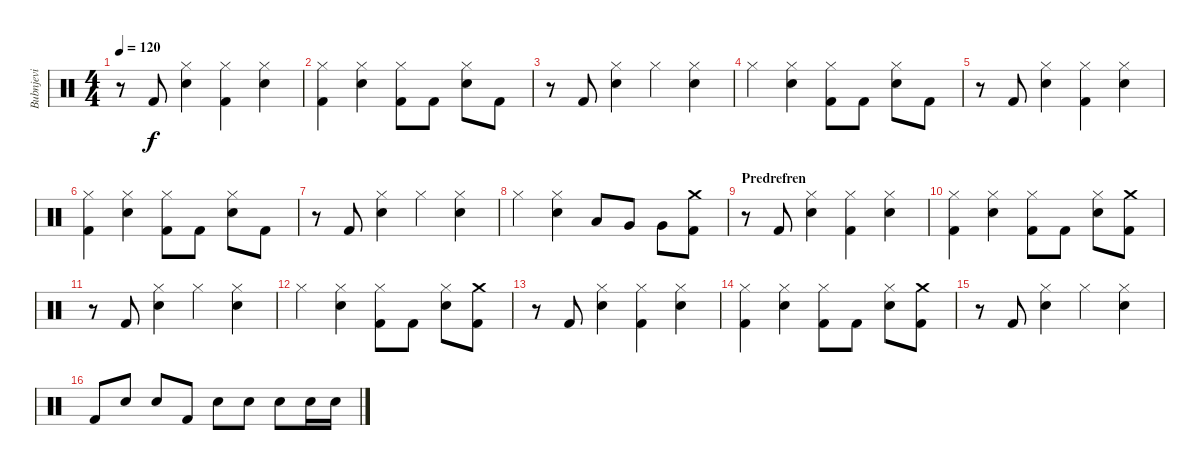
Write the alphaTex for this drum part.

\track ("Bubnjevi" "Bubnjevi") {instrument percussion}
\staff {score}
\articulation defaults
\ts (4 4)
\tempo 120
\clef neutral
\ks c
r.8{dy f} "Kick (hit) 2".8 ("Electric Snare (hit)" "Hi-Hat (closed)").4 ("Hi-Hat (closed)" "Kick (hit) 2").4 ("Electric Snare (hit)" "Hi-Hat (closed)").4 |
("Hi-Hat (closed)" "Kick (hit) 2").4 ("Electric Snare (hit)" "Hi-Hat (closed)").4 ("Hi-Hat (closed)" "Kick (hit) 2").8 "Kick (hit) 2".8 ("Electric Snare (hit)" "Hi-Hat (closed)").8 "Kick (hit) 2".8 |
r.8 "Kick (hit) 2".8 ("Electric Snare (hit)" "Hi-Hat (closed)").4 "Hi-Hat (closed)".4 ("Electric Snare (hit)" "Hi-Hat (closed)").4 |
"Hi-Hat (closed)".4 ("Electric Snare (hit)" "Hi-Hat (closed)").4 ("Hi-Hat (closed)" "Kick (hit) 2").8 "Kick (hit) 2".8 ("Electric Snare (hit)" "Hi-Hat (closed)").8 "Kick (hit) 2".8 |
r.8 "Kick (hit) 2".8 ("Electric Snare (hit)" "Hi-Hat (closed)").4 ("Hi-Hat (closed)" "Kick (hit) 2").4 ("Electric Snare (hit)" "Hi-Hat (closed)").4 |
("Hi-Hat (closed)" "Kick (hit) 2").4 ("Electric Snare (hit)" "Hi-Hat (closed)").4 ("Hi-Hat (closed)" "Kick (hit) 2").8 "Kick (hit) 2".8 ("Electric Snare (hit)" "Hi-Hat (closed)").8 "Kick (hit) 2".8 |
r.8 "Kick (hit) 2".8 ("Electric Snare (hit)" "Hi-Hat (closed)").4 "Hi-Hat (closed)".4 ("Electric Snare (hit)" "Hi-Hat (closed)").4 |
"Hi-Hat (closed)".4 ("Electric Snare (hit)" "Hi-Hat (closed)").4 "Low Tom (hit)".8 "Very Low Tom (hit)".8 "Very Low Tom (hit)".8 ("Crash medium (hit)" "Kick (hit) 2").8 |
\section ("" "Predrefren")
r.8 "Kick (hit) 2".8 ("Electric Snare (hit)" "Hi-Hat (closed)").4 ("Hi-Hat (closed)" "Kick (hit) 2").4 ("Electric Snare (hit)" "Hi-Hat (closed)").4 |
("Hi-Hat (closed)" "Kick (hit) 2").4 ("Electric Snare (hit)" "Hi-Hat (closed)").4 ("Hi-Hat (closed)" "Kick (hit) 2").8 "Kick (hit) 2".8 ("Electric Snare (hit)" "Hi-Hat (closed)").8 ("Crash medium (hit)" "Kick (hit) 2").8 |
r.8 "Kick (hit) 2".8 ("Electric Snare (hit)" "Hi-Hat (closed)").4 "Hi-Hat (closed)".4 ("Electric Snare (hit)" "Hi-Hat (closed)").4 |
"Hi-Hat (closed)".4 ("Electric Snare (hit)" "Hi-Hat (closed)").4 ("Hi-Hat (closed)" "Kick (hit) 2").8 "Kick (hit) 2".8 ("Electric Snare (hit)" "Hi-Hat (closed)").8 ("Crash medium (hit)" "Kick (hit) 2").8 |
r.8 "Kick (hit) 2".8 ("Electric Snare (hit)" "Hi-Hat (closed)").4 ("Hi-Hat (closed)" "Kick (hit) 2").4 ("Electric Snare (hit)" "Hi-Hat (closed)").4 |
("Hi-Hat (closed)" "Kick (hit) 2").4 ("Electric Snare (hit)" "Hi-Hat (closed)").4 ("Hi-Hat (closed)" "Kick (hit) 2").8 "Kick (hit) 2".8 ("Electric Snare (hit)" "Hi-Hat (closed)").8 ("Crash medium (hit)" "Kick (hit) 2").8 |
r.8 "Kick (hit) 2".8 ("Electric Snare (hit)" "Hi-Hat (closed)").4 "Hi-Hat (closed)".4 ("Electric Snare (hit)" "Hi-Hat (closed)").4 |
"Kick (hit) 2".8 "Electric Snare (hit)".8 "Electric Snare (hit)".8 "Kick (hit) 2".8 "Electric Snare (hit)".8 "Electric Snare (hit)".8 "Electric Snare (hit)".8 "Electric Snare (hit)".16 "Electric Snare (hit)".16
